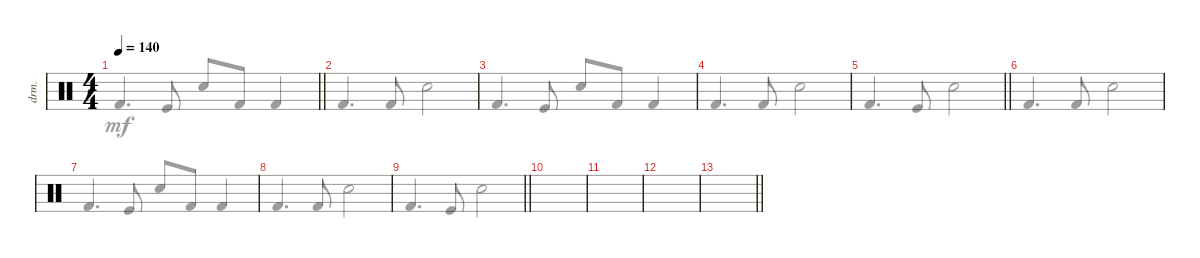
\defaultSystemsLayout 4
\bracketExtendMode groupsimilarinstruments
\otherSystemsTrackNameOrientation horizontal
\chordDiagramsInScore
\track ("Drumkit" "drm.") {instrument percussion}
\staff {score}
\articulation defaults
\voice
\ts (4 4)
\tempo 140
\clef neutral
\barLineRight lightlight
\ks c
|
|
|
|
\barLineRight lightlight
|
|
|
|
\barLineRight lightlight
|
|
|
|
\barLineRight lightlight
|
|
|
\voice
\clef neutral
\barLineRight lightlight
\ks c "Kick (hit) 2".4{d dy mf beam Up} "Kick (hit)".8{beam Up} "Snare (hit) 2".8{beam Up} "Kick (hit) 2".8{beam Up} "Kick (hit) 2".4{beam Up}
|
"Kick (hit) 2".4{d beam Up} "Kick (hit) 2".8{beam Up} "Snare (hit) 2".2{beam Down} |
"Kick (hit) 2".4{d beam Up} "Kick (hit)".8{beam Up} "Snare (hit) 2".8{beam Up} "Kick (hit) 2".8{beam Up} "Kick (hit) 2".4{beam Up} |
"Kick (hit) 2".4{d beam Up} "Kick (hit) 2".8{beam Up} "Snare (hit) 2".2{beam Down} |
\barLineRight lightlight "Kick (hit) 2".4{d beam Up} "Kick (hit)".8{beam Up} "Snare (hit) 2".2{beam Down}
|
"Kick (hit) 2".4{d beam Up} "Kick (hit) 2".8{beam Up} "Snare (hit) 2".2{beam Down} |
"Kick (hit) 2".4{d beam Up} "Kick (hit)".8{beam Up} "Snare (hit) 2".8{beam Up} "Kick (hit) 2".8{beam Up} "Kick (hit) 2".4{beam Up} |
"Kick (hit) 2".4{d beam Up} "Kick (hit) 2".8{beam Up} "Snare (hit) 2".2{beam Down} |
\barLineRight lightlight "Kick (hit) 2".4{d beam Up} "Kick (hit)".8{beam Up} "Snare (hit) 2".2{beam Down}
|
|
|
|
\barLineRight lightlight
|
|
|
